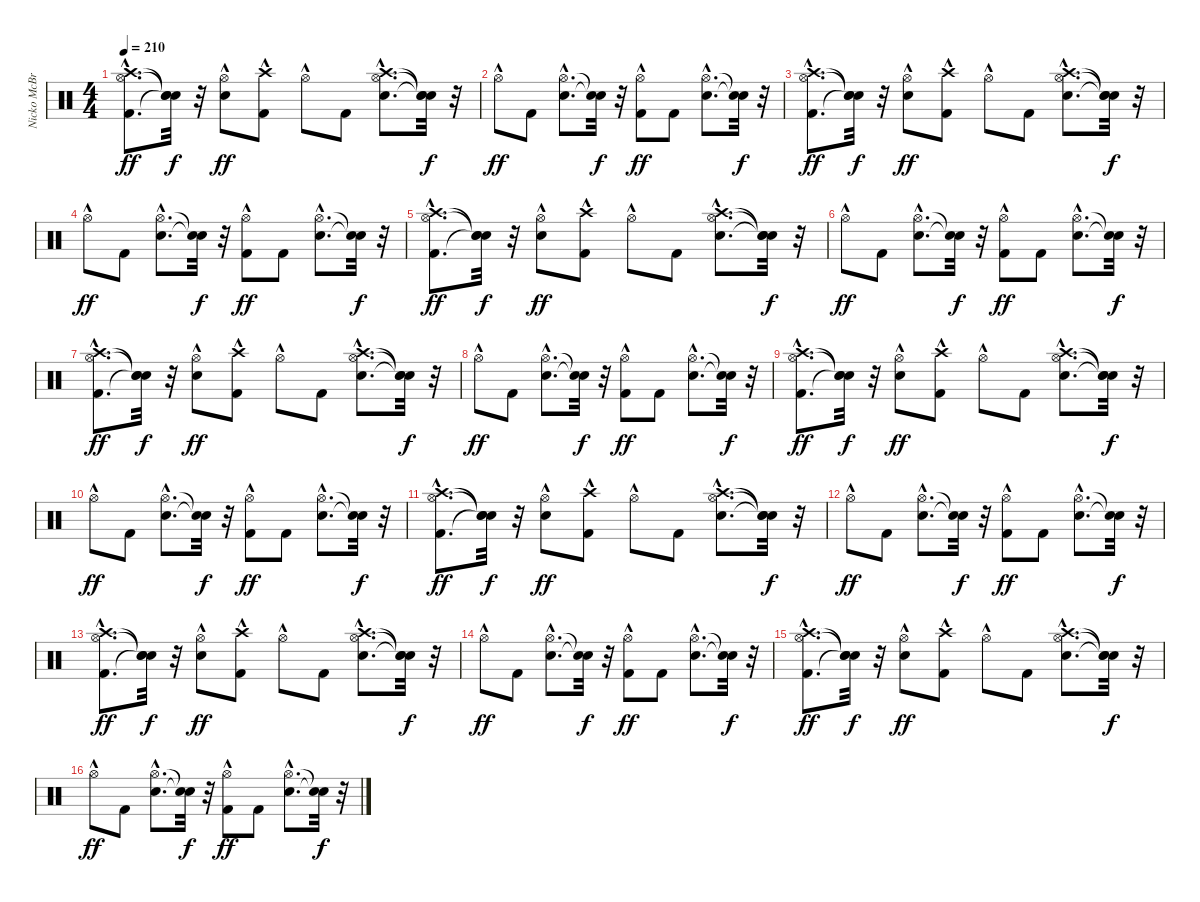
\track ("Nicko McBrain" "Nicko McBr") {instrument percussion}
\staff {score}
\articulation defaults
\ts (4 4)
\tempo 210
\clef neutral
\ks c
("Kick (hit) 2"{hac} "Hi-Hat (open)"{hac} "Crash high (hit)"{hac}).8{d dy ff} ("Snare (hit)"{t} "Snare (hit)"{t} "Snare (hit)"{t}).32{dy f} r.32 ("Snare (hit) 2" "Hi-Hat (open)"{hac}).8{dy ff} ("Kick (hit) 2" "Crash high (hit)"{hac}).8 "Hi-Hat (open)"{hac}.8 "Kick (hit) 2".8 ("Snare (hit) 2"{hac} "Hi-Hat (open)"{hac} "Crash high (hit)"{hac}).8{d} ("Snare (hit)"{t} "Snare (hit)"{t} "Snare (hit)"{t}).32{dy f} r.32 |
"Hi-Hat (open)"{hac}.8{dy ff} "Kick (hit) 2".8 ("Snare (hit) 2"{hac} "Hi-Hat (open)"{hac}).8{d} ("Snare (hit)"{t} "Snare (hit)"{t}).32{dy f} r.32 ("Kick (hit) 2" "Hi-Hat (open)"{hac}).8{dy ff} "Kick (hit) 2".8 ("Snare (hit) 2"{hac} "Hi-Hat (open)"{hac}).8{d} ("Snare (hit)"{t} "Snare (hit)"{t}).32{dy f} r.32 |
("Kick (hit) 2"{hac} "Hi-Hat (open)"{hac} "Crash high (hit)"{hac}).8{d dy ff} ("Snare (hit)"{t} "Snare (hit)"{t} "Snare (hit)"{t}).32{dy f} r.32 ("Snare (hit) 2" "Hi-Hat (open)"{hac}).8{dy ff} ("Kick (hit) 2" "Crash high (hit)"{hac}).8 "Hi-Hat (open)"{hac}.8 "Kick (hit) 2".8 ("Snare (hit) 2"{hac} "Hi-Hat (open)"{hac} "Crash high (hit)"{hac}).8{d} ("Snare (hit)"{t} "Snare (hit)"{t} "Snare (hit)"{t}).32{dy f} r.32 |
"Hi-Hat (open)"{hac}.8{dy ff} "Kick (hit) 2".8 ("Snare (hit) 2"{hac} "Hi-Hat (open)"{hac}).8{d} ("Snare (hit)"{t} "Snare (hit)"{t}).32{dy f} r.32 ("Kick (hit) 2" "Hi-Hat (open)"{hac}).8{dy ff} "Kick (hit) 2".8 ("Snare (hit) 2"{hac} "Hi-Hat (open)"{hac}).8{d} ("Snare (hit)"{t} "Snare (hit)"{t}).32{dy f} r.32 |
("Kick (hit) 2"{hac} "Hi-Hat (open)"{hac} "Crash high (hit)"{hac}).8{d dy ff} ("Snare (hit)"{t} "Snare (hit)"{t} "Snare (hit)"{t}).32{dy f} r.32 ("Snare (hit) 2" "Hi-Hat (open)"{hac}).8{dy ff} ("Kick (hit) 2" "Crash high (hit)"{hac}).8 "Hi-Hat (open)"{hac}.8 "Kick (hit) 2".8 ("Snare (hit) 2"{hac} "Hi-Hat (open)"{hac} "Crash high (hit)"{hac}).8{d} ("Snare (hit)"{t} "Snare (hit)"{t} "Snare (hit)"{t}).32{dy f} r.32 |
"Hi-Hat (open)"{hac}.8{dy ff} "Kick (hit) 2".8 ("Snare (hit) 2"{hac} "Hi-Hat (open)"{hac}).8{d} ("Snare (hit)"{t} "Snare (hit)"{t}).32{dy f} r.32 ("Kick (hit) 2" "Hi-Hat (open)"{hac}).8{dy ff} "Kick (hit) 2".8 ("Snare (hit) 2"{hac} "Hi-Hat (open)"{hac}).8{d} ("Snare (hit)"{t} "Snare (hit)"{t}).32{dy f} r.32 |
("Kick (hit) 2"{hac} "Hi-Hat (open)"{hac} "Crash high (hit)"{hac}).8{d dy ff} ("Snare (hit)"{t} "Snare (hit)"{t} "Snare (hit)"{t}).32{dy f} r.32 ("Snare (hit) 2" "Hi-Hat (open)"{hac}).8{dy ff} ("Kick (hit) 2" "Crash high (hit)"{hac}).8 "Hi-Hat (open)"{hac}.8 "Kick (hit) 2".8 ("Snare (hit) 2"{hac} "Hi-Hat (open)"{hac} "Crash high (hit)"{hac}).8{d} ("Snare (hit)"{t} "Snare (hit)"{t} "Snare (hit)"{t}).32{dy f} r.32 |
"Hi-Hat (open)"{hac}.8{dy ff} "Kick (hit) 2".8 ("Snare (hit) 2"{hac} "Hi-Hat (open)"{hac}).8{d} ("Snare (hit)"{t} "Snare (hit)"{t}).32{dy f} r.32 ("Kick (hit) 2" "Hi-Hat (open)"{hac}).8{dy ff} "Kick (hit) 2".8 ("Snare (hit) 2"{hac} "Hi-Hat (open)"{hac}).8{d} ("Snare (hit)"{t} "Snare (hit)"{t}).32{dy f} r.32 |
("Kick (hit) 2"{hac} "Hi-Hat (open)"{hac} "Crash high (hit)"{hac}).8{d dy ff} ("Snare (hit)"{t} "Snare (hit)"{t} "Snare (hit)"{t}).32{dy f} r.32 ("Snare (hit) 2" "Hi-Hat (open)"{hac}).8{dy ff} ("Kick (hit) 2" "Crash high (hit)"{hac}).8 "Hi-Hat (open)"{hac}.8 "Kick (hit) 2".8 ("Snare (hit) 2"{hac} "Hi-Hat (open)"{hac} "Crash high (hit)"{hac}).8{d} ("Snare (hit)"{t} "Snare (hit)"{t} "Snare (hit)"{t}).32{dy f} r.32 |
"Hi-Hat (open)"{hac}.8{dy ff} "Kick (hit) 2".8 ("Snare (hit) 2"{hac} "Hi-Hat (open)"{hac}).8{d} ("Snare (hit)"{t} "Snare (hit)"{t}).32{dy f} r.32 ("Kick (hit) 2" "Hi-Hat (open)"{hac}).8{dy ff} "Kick (hit) 2".8 ("Snare (hit) 2"{hac} "Hi-Hat (open)"{hac}).8{d} ("Snare (hit)"{t} "Snare (hit)"{t}).32{dy f} r.32 |
("Kick (hit) 2"{hac} "Hi-Hat (open)"{hac} "Crash high (hit)"{hac}).8{d dy ff} ("Snare (hit)"{t} "Snare (hit)"{t} "Snare (hit)"{t}).32{dy f} r.32 ("Snare (hit) 2" "Hi-Hat (open)"{hac}).8{dy ff} ("Kick (hit) 2" "Crash high (hit)"{hac}).8 "Hi-Hat (open)"{hac}.8 "Kick (hit) 2".8 ("Snare (hit) 2"{hac} "Hi-Hat (open)"{hac} "Crash high (hit)"{hac}).8{d} ("Snare (hit)"{t} "Snare (hit)"{t} "Snare (hit)"{t}).32{dy f} r.32 |
"Hi-Hat (open)"{hac}.8{dy ff} "Kick (hit) 2".8 ("Snare (hit) 2"{hac} "Hi-Hat (open)"{hac}).8{d} ("Snare (hit)"{t} "Snare (hit)"{t}).32{dy f} r.32 ("Kick (hit) 2" "Hi-Hat (open)"{hac}).8{dy ff} "Kick (hit) 2".8 ("Snare (hit) 2"{hac} "Hi-Hat (open)"{hac}).8{d} ("Snare (hit)"{t} "Snare (hit)"{t}).32{dy f} r.32 |
("Kick (hit) 2"{hac} "Hi-Hat (open)"{hac} "Crash high (hit)"{hac}).8{d dy ff} ("Snare (hit)"{t} "Snare (hit)"{t} "Snare (hit)"{t}).32{dy f} r.32 ("Snare (hit) 2" "Hi-Hat (open)"{hac}).8{dy ff} ("Kick (hit) 2" "Crash high (hit)"{hac}).8 "Hi-Hat (open)"{hac}.8 "Kick (hit) 2".8 ("Snare (hit) 2"{hac} "Hi-Hat (open)"{hac} "Crash high (hit)"{hac}).8{d} ("Snare (hit)"{t} "Snare (hit)"{t} "Snare (hit)"{t}).32{dy f} r.32 |
"Hi-Hat (open)"{hac}.8{dy ff} "Kick (hit) 2".8 ("Snare (hit) 2"{hac} "Hi-Hat (open)"{hac}).8{d} ("Snare (hit)"{t} "Snare (hit)"{t}).32{dy f} r.32 ("Kick (hit) 2" "Hi-Hat (open)"{hac}).8{dy ff} "Kick (hit) 2".8 ("Snare (hit) 2"{hac} "Hi-Hat (open)"{hac}).8{d} ("Snare (hit)"{t} "Snare (hit)"{t}).32{dy f} r.32 |
("Kick (hit) 2"{hac} "Hi-Hat (open)"{hac} "Crash high (hit)"{hac}).8{d dy ff} ("Snare (hit)"{t} "Snare (hit)"{t} "Snare (hit)"{t}).32{dy f} r.32 ("Snare (hit) 2" "Hi-Hat (open)"{hac}).8{dy ff} ("Kick (hit) 2" "Crash high (hit)"{hac}).8 "Hi-Hat (open)"{hac}.8 "Kick (hit) 2".8 ("Snare (hit) 2"{hac} "Hi-Hat (open)"{hac} "Crash high (hit)"{hac}).8{d} ("Snare (hit)"{t} "Snare (hit)"{t} "Snare (hit)"{t}).32{dy f} r.32 |
"Hi-Hat (open)"{hac}.8{dy ff} "Kick (hit) 2".8 ("Snare (hit) 2"{hac} "Hi-Hat (open)"{hac}).8{d} ("Snare (hit)"{t} "Snare (hit)"{t}).32{dy f} r.32 ("Kick (hit) 2" "Hi-Hat (open)"{hac}).8{dy ff} "Kick (hit) 2".8 ("Snare (hit) 2"{hac} "Hi-Hat (open)"{hac}).8{d} ("Snare (hit)"{t} "Snare (hit)"{t}).32{dy f} r.32
